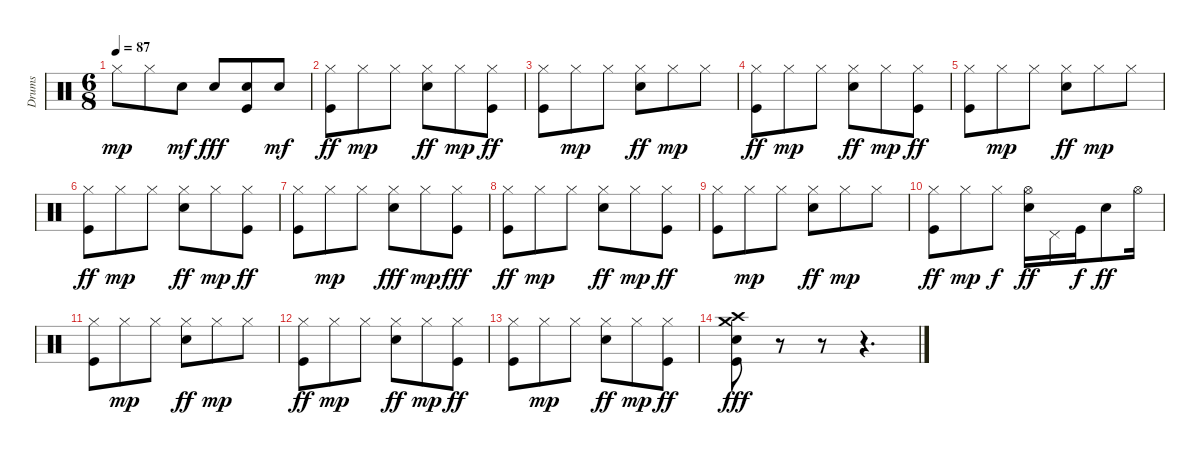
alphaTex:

\track ("Drums" "Drums") {instrument percussion}
\staff {score}
\articulation defaults
\ts (6 8)
\tempo 87
\clef neutral
\ks c "Hi-Hat (closed)".8{dy mp} "Hi-Hat (closed)".8 "Snare (hit) 2".8{dy mf} "Snare (hit) 2".8{dy fff}
("Snare (hit) 2" "Kick (hit)").8 "Snare (hit) 2".8{dy mf} |
("Hi-Hat (closed)" "Kick (hit)").8{dy ff} "Hi-Hat (closed)".8{dy mp} "Hi-Hat (closed)".8 ("Hi-Hat (closed)" "Snare (hit) 2").8{dy ff} "Hi-Hat (closed)".8{dy mp} ("Hi-Hat (closed)" "Kick (hit)").8{dy ff} |
("Hi-Hat (closed)" "Kick (hit)").8 "Hi-Hat (closed)".8{dy mp} "Hi-Hat (closed)".8 ("Hi-Hat (closed)" "Snare (hit) 2").8{dy ff} "Hi-Hat (closed)".8{dy mp} "Hi-Hat (closed)".8 |
("Hi-Hat (closed)" "Kick (hit)").8{dy ff} "Hi-Hat (closed)".8{dy mp} "Hi-Hat (closed)".8 ("Hi-Hat (closed)" "Snare (hit) 2").8{dy ff} "Hi-Hat (closed)".8{dy mp} ("Hi-Hat (closed)" "Kick (hit)").8{dy ff} |
("Hi-Hat (closed)" "Kick (hit)").8 "Hi-Hat (closed)".8{dy mp} "Hi-Hat (closed)".8 ("Hi-Hat (closed)" "Snare (hit) 2").8{dy ff} "Hi-Hat (closed)".8{dy mp} "Hi-Hat (closed)".8 |
("Hi-Hat (closed)" "Kick (hit)").8{dy ff} "Hi-Hat (closed)".8{dy mp} "Hi-Hat (closed)".8 ("Hi-Hat (closed)" "Snare (hit) 2").8{dy ff} "Hi-Hat (closed)".8{dy mp} ("Hi-Hat (closed)" "Kick (hit)").8{dy ff} |
("Hi-Hat (closed)" "Kick (hit)").8{volume 12} "Hi-Hat (closed)".8{dy mp} "Hi-Hat (closed)".8 ("Hi-Hat (closed)" "Snare (hit) 2").8{dy fff} "Hi-Hat (closed)".8{dy mp} ("Hi-Hat (closed)" "Kick (hit)").8{dy fff} |
("Hi-Hat (closed)" "Kick (hit)").8{dy ff volume 11} "Hi-Hat (closed)".8{dy mp} "Hi-Hat (closed)".8 ("Hi-Hat (closed)" "Snare (hit) 2").8{dy ff} "Hi-Hat (closed)".8{dy mp} ("Hi-Hat (closed)" "Kick (hit)").8{dy ff} |
("Hi-Hat (closed)" "Kick (hit)").8{volume 10} "Hi-Hat (closed)".8{dy mp} "Hi-Hat (closed)".8 ("Hi-Hat (closed)" "Snare (hit) 2").8{dy ff volume 9} "Hi-Hat (closed)".8{dy mp} "Hi-Hat (closed)".8 |
("Hi-Hat (closed)" "Kick (hit)").8{dy ff volume 8} "Hi-Hat (closed)".8{dy mp} "Hi-Hat (closed)".8{dy f} ("Hi-Hat (open)" "Snare (hit) 2").16{dy ff volume 7} "Pedal Hi-Hat (hit)".16 "Kick (hit)".16{dy f} "Snare (hit) 2".8{dy ff} "Hi-Hat (open)".16 |
("Hi-Hat (closed)" "Kick (hit)").8{volume 6} "Hi-Hat (closed)".8{dy mp} "Hi-Hat (closed)".8 ("Hi-Hat (closed)" "Snare (hit) 2").8{dy ff volume 5} "Hi-Hat (closed)".8{dy mp} "Hi-Hat (closed)".8 |
("Hi-Hat (closed)" "Kick (hit)").8{dy ff volume 4} "Hi-Hat (closed)".8{dy mp} "Hi-Hat (closed)".8 ("Hi-Hat (closed)" "Snare (hit) 2").8{dy ff volume 3} "Hi-Hat (closed)".8{dy mp} ("Hi-Hat (closed)" "Kick (hit)").8{dy ff} |
("Hi-Hat (closed)" "Kick (hit)").8{volume 2} "Hi-Hat (closed)".8{dy mp} "Hi-Hat (closed)".8 ("Hi-Hat (closed)" "Snare (hit) 2").8{dy ff} "Hi-Hat (closed)".8{dy mp} ("Hi-Hat (closed)" "Kick (hit)").8{dy ff} |
("Crash medium (hit)" "Crash high (hit)" "Snare (hit) 2" "Kick (hit)").8{dy fff volume 1} r.8 r.8 r.4{d}
